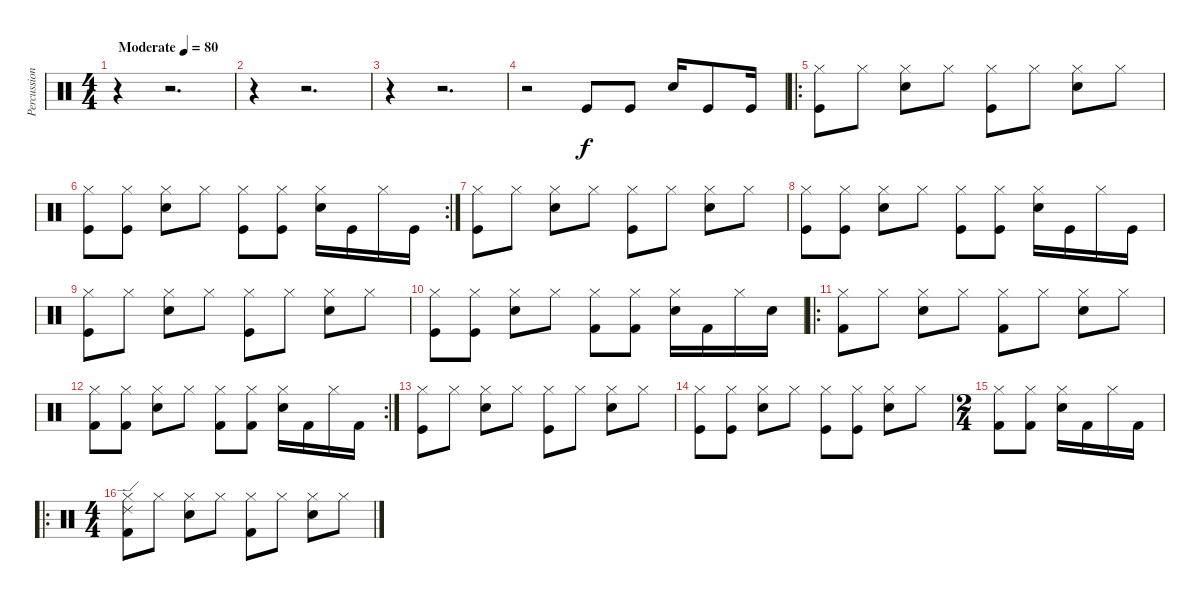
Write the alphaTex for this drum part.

\track ("Percussion" "Percussion") {instrument percussion}
\staff {score}
\articulation defaults
\ts (4 4)
\tempo (80 "Moderate")
\clef neutral
\ks c
r.4{dy f} r.2{d} |
r.4 r.2{d} |
r.4 r.2{d} |
r.2 "Kick (hit)".8 "Kick (hit)".8 "Snare (hit) 2".16 "Kick (hit)".8 "Kick (hit)".16 |
\ro
("Hi-Hat (closed)" "Kick (hit)").8 "Hi-Hat (closed)".8 ("Hi-Hat (closed)" "Snare (hit) 2").8 "Hi-Hat (closed)".8 ("Hi-Hat (closed)" "Kick (hit)").8 "Hi-Hat (closed)".8 ("Hi-Hat (closed)" "Snare (hit) 2").8 "Hi-Hat (closed)".8 |
\rc 2
("Hi-Hat (closed)" "Kick (hit)").8 ("Hi-Hat (closed)" "Kick (hit)").8 ("Hi-Hat (closed)" "Snare (hit) 2").8 "Hi-Hat (closed)".8 ("Hi-Hat (closed)" "Kick (hit)").8 ("Hi-Hat (closed)" "Kick (hit)").8 ("Hi-Hat (closed)" "Snare (hit) 2").16 "Kick (hit)".16 "Hi-Hat (closed)".16 "Kick (hit)".16 |
("Hi-Hat (closed)" "Kick (hit)").8 "Hi-Hat (closed)".8 ("Hi-Hat (closed)" "Snare (hit) 2").8 "Hi-Hat (closed)".8 ("Hi-Hat (closed)" "Kick (hit)").8 "Hi-Hat (closed)".8 ("Hi-Hat (closed)" "Snare (hit) 2").8 "Hi-Hat (closed)".8 |
("Hi-Hat (closed)" "Kick (hit)").8 ("Hi-Hat (closed)" "Kick (hit)").8 ("Hi-Hat (closed)" "Snare (hit) 2").8 "Hi-Hat (closed)".8 ("Hi-Hat (closed)" "Kick (hit)").8 ("Hi-Hat (closed)" "Kick (hit)").8 ("Hi-Hat (closed)" "Snare (hit) 2").16 "Kick (hit)".16 "Hi-Hat (closed)".16 "Kick (hit)".16 |
("Hi-Hat (closed)" "Kick (hit)").8 "Hi-Hat (closed)".8 ("Hi-Hat (closed)" "Snare (hit) 2").8 "Hi-Hat (closed)".8 ("Hi-Hat (closed)" "Kick (hit)").8 "Hi-Hat (closed)".8 ("Hi-Hat (closed)" "Snare (hit) 2").8 "Hi-Hat (closed)".8 |
("Hi-Hat (closed)" "Kick (hit)").8 ("Hi-Hat (closed)" "Kick (hit)").8 ("Hi-Hat (closed)" "Snare (hit) 2").8 "Hi-Hat (closed)".8 ("Hi-Hat (closed)" "Kick (hit) 2").8 ("Hi-Hat (closed)" "Kick (hit) 2").8 ("Hi-Hat (closed)" "Snare (hit) 2").16 "Kick (hit) 2".16 "Hi-Hat (closed)".16 "Snare (hit) 2".16 |
\ro
("Hi-Hat (closed)" "Kick (hit) 2").8 "Hi-Hat (closed)".8 ("Hi-Hat (closed)" "Snare (hit) 2").8 "Hi-Hat (closed)".8 ("Hi-Hat (closed)" "Kick (hit) 2").8 "Hi-Hat (closed)".8 ("Hi-Hat (closed)" "Snare (hit) 2").8 "Hi-Hat (closed)".8 |
\rc 2
("Hi-Hat (closed)" "Kick (hit) 2").8 ("Hi-Hat (closed)" "Kick (hit) 2").8 ("Hi-Hat (closed)" "Snare (hit) 2").8 "Hi-Hat (closed)".8 ("Hi-Hat (closed)" "Kick (hit) 2").8 ("Hi-Hat (closed)" "Kick (hit) 2").8 ("Hi-Hat (closed)" "Snare (hit) 2").16 "Kick (hit) 2".16 "Hi-Hat (closed)".16 "Kick (hit) 2".16 |
("Hi-Hat (closed)" "Kick (hit)").8 "Hi-Hat (closed)".8 ("Hi-Hat (closed)" "Snare (hit) 2").8 "Hi-Hat (closed)".8 ("Hi-Hat (closed)" "Kick (hit)").8 "Hi-Hat (closed)".8 ("Hi-Hat (closed)" "Snare (hit) 2").8 "Hi-Hat (closed)".8 |
("Hi-Hat (closed)" "Kick (hit)").8 ("Hi-Hat (closed)" "Kick (hit)").8 ("Hi-Hat (closed)" "Snare (hit) 2").8 "Hi-Hat (closed)".8 ("Hi-Hat (closed)" "Kick (hit)").8 ("Hi-Hat (closed)" "Kick (hit)").8 ("Hi-Hat (closed)" "Snare (hit) 2").8 "Hi-Hat (closed)".8 |
\ts (2 4)
("Hi-Hat (closed)" "Kick (hit) 2").8 ("Hi-Hat (closed)" "Kick (hit) 2").8 ("Hi-Hat (closed)" "Snare (hit) 2").16 "Kick (hit) 2".16 "Hi-Hat (closed)".16 "Kick (hit) 2".16 |
\ro
\ts (4 4)
("Hi-Hat (closed)" "Kick (hit) 2" "Ride (edge) 2").8 "Hi-Hat (closed)".8 ("Hi-Hat (closed)" "Snare (hit) 2").8 "Hi-Hat (closed)".8 ("Hi-Hat (closed)" "Kick (hit) 2").8 "Hi-Hat (closed)".8 ("Hi-Hat (closed)" "Snare (hit) 2").8 "Hi-Hat (closed)".8
